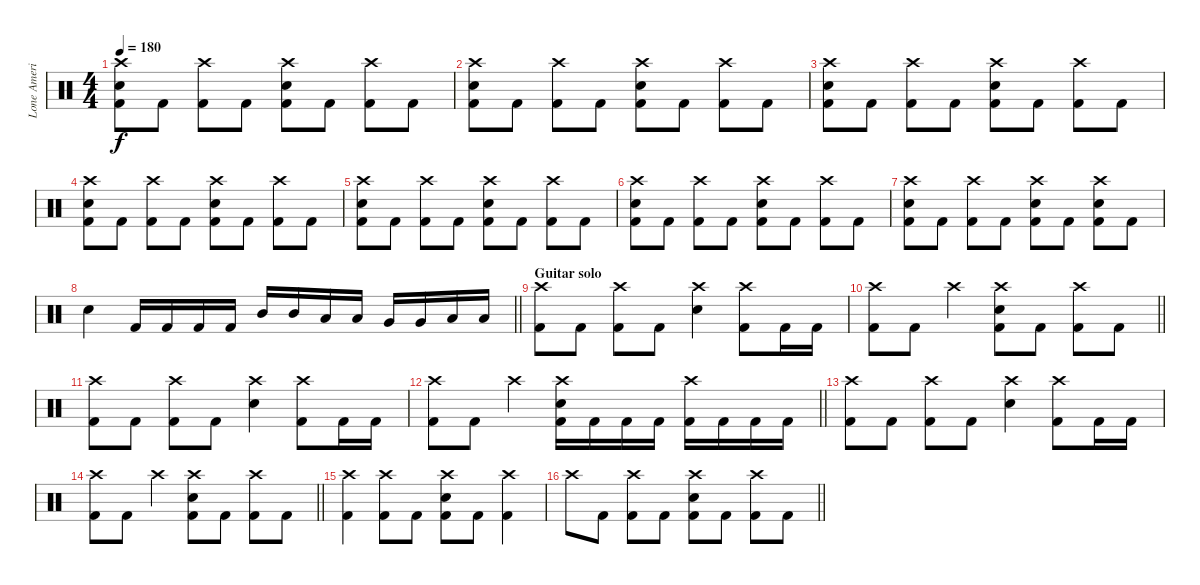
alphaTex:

\track ("Lone America" "Lone Ameri") {instrument percussion}
\staff {score}
\articulation defaults
\ts (4 4)
\tempo 180
\clef neutral
\ks c
("Crash high (hit)" "Electric Snare (hit)" "Kick (hit) 2").8{dy f} "Kick (hit) 2".8 ("Crash high (hit)" "Kick (hit) 2").8 "Kick (hit) 2".8 ("Crash high (hit)" "Electric Snare (hit)" "Kick (hit) 2").8 "Kick (hit) 2".8 ("Crash high (hit)" "Kick (hit) 2").8 "Kick (hit) 2".8 |
("Crash high (hit)" "Electric Snare (hit)" "Kick (hit) 2").8 "Kick (hit) 2".8 ("Crash high (hit)" "Kick (hit) 2").8 "Kick (hit) 2".8 ("Crash high (hit)" "Electric Snare (hit)" "Kick (hit) 2").8 "Kick (hit) 2".8 ("Crash high (hit)" "Kick (hit) 2").8 "Kick (hit) 2".8 |
("Crash high (hit)" "Electric Snare (hit)" "Kick (hit) 2").8 "Kick (hit) 2".8 ("Crash high (hit)" "Kick (hit) 2").8 "Kick (hit) 2".8 ("Crash high (hit)" "Electric Snare (hit)" "Kick (hit) 2").8 "Kick (hit) 2".8 ("Crash high (hit)" "Kick (hit) 2").8 "Kick (hit) 2".8 |
("Crash high (hit)" "Electric Snare (hit)" "Kick (hit) 2").8 "Kick (hit) 2".8 ("Crash high (hit)" "Kick (hit) 2").8 "Kick (hit) 2".8 ("Crash high (hit)" "Electric Snare (hit)" "Kick (hit) 2").8 "Kick (hit) 2".8 ("Crash high (hit)" "Kick (hit) 2").8 "Kick (hit) 2".8 |
("Crash high (hit)" "Electric Snare (hit)" "Kick (hit) 2").8 "Kick (hit) 2".8 ("Crash high (hit)" "Kick (hit) 2").8 "Kick (hit) 2".8 ("Crash high (hit)" "Electric Snare (hit)" "Kick (hit) 2").8 "Kick (hit) 2".8 ("Crash high (hit)" "Kick (hit) 2").8 "Kick (hit) 2".8 |
("Crash high (hit)" "Electric Snare (hit)" "Kick (hit) 2").8 "Kick (hit) 2".8 ("Crash high (hit)" "Kick (hit) 2").8 "Kick (hit) 2".8 ("Crash high (hit)" "Electric Snare (hit)" "Kick (hit) 2").8 "Kick (hit) 2".8 ("Crash high (hit)" "Kick (hit) 2").8 "Kick (hit) 2".8 |
("Crash high (hit)" "Electric Snare (hit)" "Kick (hit) 2").8 "Kick (hit) 2".8 ("Crash high (hit)" "Kick (hit) 2").8 "Kick (hit) 2".8 ("Crash high (hit)" "Electric Snare (hit)" "Kick (hit) 2").8 "Kick (hit) 2".8 ("Crash high (hit)" "Electric Snare (hit)" "Kick (hit) 2").8 "Kick (hit) 2".8 |
\barLineRight lightlight "Electric Snare (hit)".4 "Kick (hit) 2".16 "Kick (hit) 2".16 "Kick (hit) 2".16 "Kick (hit) 2".16 "Mid Tom (hit)".16 "Mid Tom (hit)".16 "Low Tom (hit)".16 "Low Tom (hit)".16 "Very Low Tom (hit)".16 "Very Low Tom (hit)".16 "Low Floor Tom (hit)".16 "Low Floor Tom (hit)".16
|
\section ("" "Guitar solo")
("Crash high (hit)" "Kick (hit) 2").8 "Kick (hit) 2".8 ("Crash high (hit)" "Kick (hit) 2").8 "Kick (hit) 2".8 ("Crash high (hit)" "Electric Snare (hit)").4 ("Crash high (hit)" "Kick (hit) 2").8 "Kick (hit) 2".16 "Kick (hit) 2".16 |
\barLineRight lightlight
("Crash high (hit)" "Kick (hit) 2").8 "Kick (hit) 2".8 "Crash high (hit)".4 ("Crash high (hit)" "Electric Snare (hit)" "Kick (hit) 2").8 "Kick (hit) 2".8 ("Crash high (hit)" "Kick (hit) 2").8 "Kick (hit) 2".8 |
("Crash high (hit)" "Kick (hit) 2").8 "Kick (hit) 2".8 ("Crash high (hit)" "Kick (hit) 2").8 "Kick (hit) 2".8 ("Crash high (hit)" "Electric Snare (hit)").4 ("Crash high (hit)" "Kick (hit) 2").8 "Kick (hit) 2".16 "Kick (hit) 2".16 |
\barLineRight lightlight
("Crash high (hit)" "Kick (hit) 2").8 "Kick (hit) 2".8 "Crash high (hit)".4 ("Crash high (hit)" "Electric Snare (hit)" "Kick (hit) 2").16 "Kick (hit) 2".16 "Kick (hit) 2".16 "Kick (hit) 2".16 ("Crash high (hit)" "Kick (hit) 2").16 "Kick (hit) 2".16 "Kick (hit) 2".16 "Kick (hit) 2".16 |
("Crash high (hit)" "Kick (hit) 2").8 "Kick (hit) 2".8 ("Crash high (hit)" "Kick (hit) 2").8 "Kick (hit) 2".8 ("Crash high (hit)" "Electric Snare (hit)").4 ("Crash high (hit)" "Kick (hit) 2").8 "Kick (hit) 2".16 "Kick (hit) 2".16 |
\barLineRight lightlight
("Crash high (hit)" "Kick (hit) 2").8 "Kick (hit) 2".8 "Crash high (hit)".4 ("Crash high (hit)" "Electric Snare (hit)" "Kick (hit) 2").8 "Kick (hit) 2".8 ("Crash high (hit)" "Kick (hit) 2").8 "Kick (hit) 2".8 |
("Crash high (hit)" "Kick (hit) 2").4 ("Crash high (hit)" "Kick (hit) 2").8 "Kick (hit) 2".8 ("Crash high (hit)" "Electric Snare (hit)" "Kick (hit) 2").8 "Kick (hit) 2".8 ("Crash high (hit)" "Kick (hit) 2").4 |
\barLineRight lightlight "Crash high (hit)".8 "Kick (hit) 2".8
("Crash high (hit)" "Kick (hit) 2").8 "Kick (hit) 2".8 ("Crash high (hit)" "Electric Snare (hit)" "Kick (hit) 2").8 "Kick (hit) 2".8 ("Crash high (hit)" "Kick (hit) 2").8 "Kick (hit) 2".8
